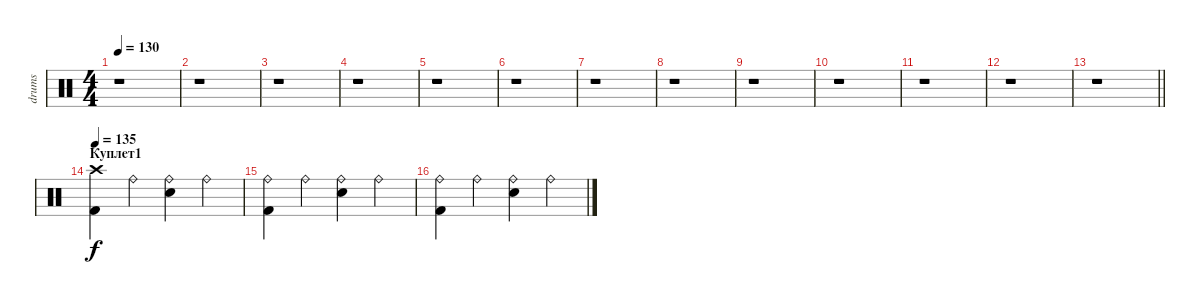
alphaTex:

\track ("drums" "drums") {instrument percussion}
\staff {score}
\articulation defaults
\ts (4 4)
\tempo 130
\clef neutral
\ks c
r.1{dy f} |
r.1 |
r.1 |
r.1 |
r.1 |
r.1 |
r.1 |
r.1 |
r.1 |
r.1 |
r.1 |
r.1 |
\barLineRight lightlight
r.1 |
\section ("" "Куплет1")
\tempo 135
("Kick (hit) 2" "Crash high (hit)").4 "Ride (bell)".4 ("Electric Snare (hit)" "Ride (bell)").4 "Ride (bell)".4 |
("Kick (hit) 2" "Ride (bell)").4 "Ride (bell)".4 ("Electric Snare (hit)" "Ride (bell)").4 "Ride (bell)".4 |
("Ride (bell)" "Kick (hit) 2").4 "Ride (bell)".4 ("Electric Snare (hit)" "Ride (bell)").4 "Ride (bell)".4
